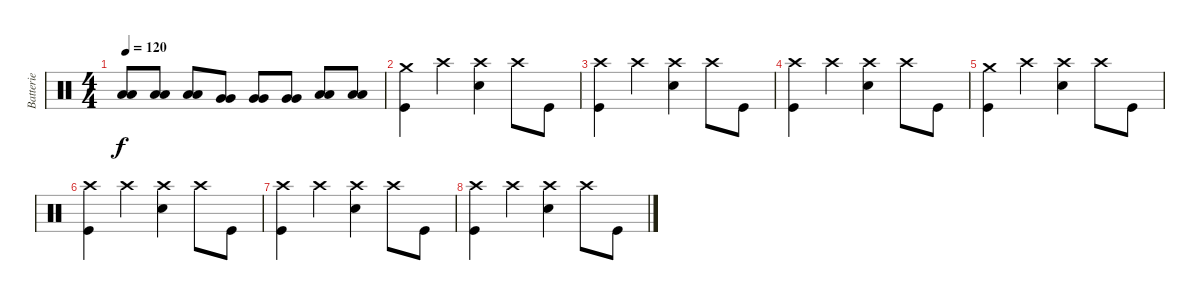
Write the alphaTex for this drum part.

\track ("Batterie" "Batterie") {instrument percussion}
\staff {score}
\articulation defaults
\ts (4 4)
\tempo 120
\clef neutral
\ks c
("Low Tom (hit)" "Low Tom (hit)").8{bd 30 dy f} ("Low Tom (hit)" "Low Tom (hit)").8{bd 30} ("Low Tom (hit)" "Low Tom (hit)").8{bd 30} ("Very Low Tom (hit)" "Very Low Tom (hit)").8{bd 30} ("Very Low Tom (hit)" "Very Low Tom (hit)").8{bd 30} ("Very Low Tom (hit)" "Very Low Tom (hit)").8{bd 30} ("Low Floor Tom (hit)" "Low Floor Tom (hit)").8{bd 30} ("Low Floor Tom (hit)" "Low Floor Tom (hit)").8{bd 30} |
("Crash medium (hit)" "Kick (hit)").4 "Crash high (hit)".4 ("Crash high (hit)" "Electric Snare (hit)").4 "Crash high (hit)".8 "Kick (hit)".8 |
("Crash high (hit)" "Kick (hit)").4 "Crash high (hit)".4 ("Crash high (hit)" "Electric Snare (hit)").4 "Crash high (hit)".8 "Kick (hit)".8 |
("Crash high (hit)" "Kick (hit)").4 "Crash high (hit)".4 ("Crash high (hit)" "Electric Snare (hit)").4 "Crash high (hit)".8 "Kick (hit)".8 |
("Crash medium (hit)" "Kick (hit)").4 "Crash high (hit)".4 ("Crash high (hit)" "Electric Snare (hit)").4 "Crash high (hit)".8 "Kick (hit)".8 |
("Crash high (hit)" "Kick (hit)").4 "Crash high (hit)".4 ("Crash high (hit)" "Electric Snare (hit)").4 "Crash high (hit)".8 "Kick (hit)".8 |
("Crash high (hit)" "Kick (hit)").4 "Crash high (hit)".4 ("Crash high (hit)" "Electric Snare (hit)").4 "Crash high (hit)".8 "Kick (hit)".8 |
("Crash high (hit)" "Kick (hit)").4 "Crash high (hit)".4 ("Crash high (hit)" "Electric Snare (hit)").4 "Crash high (hit)".8 "Kick (hit)".8
